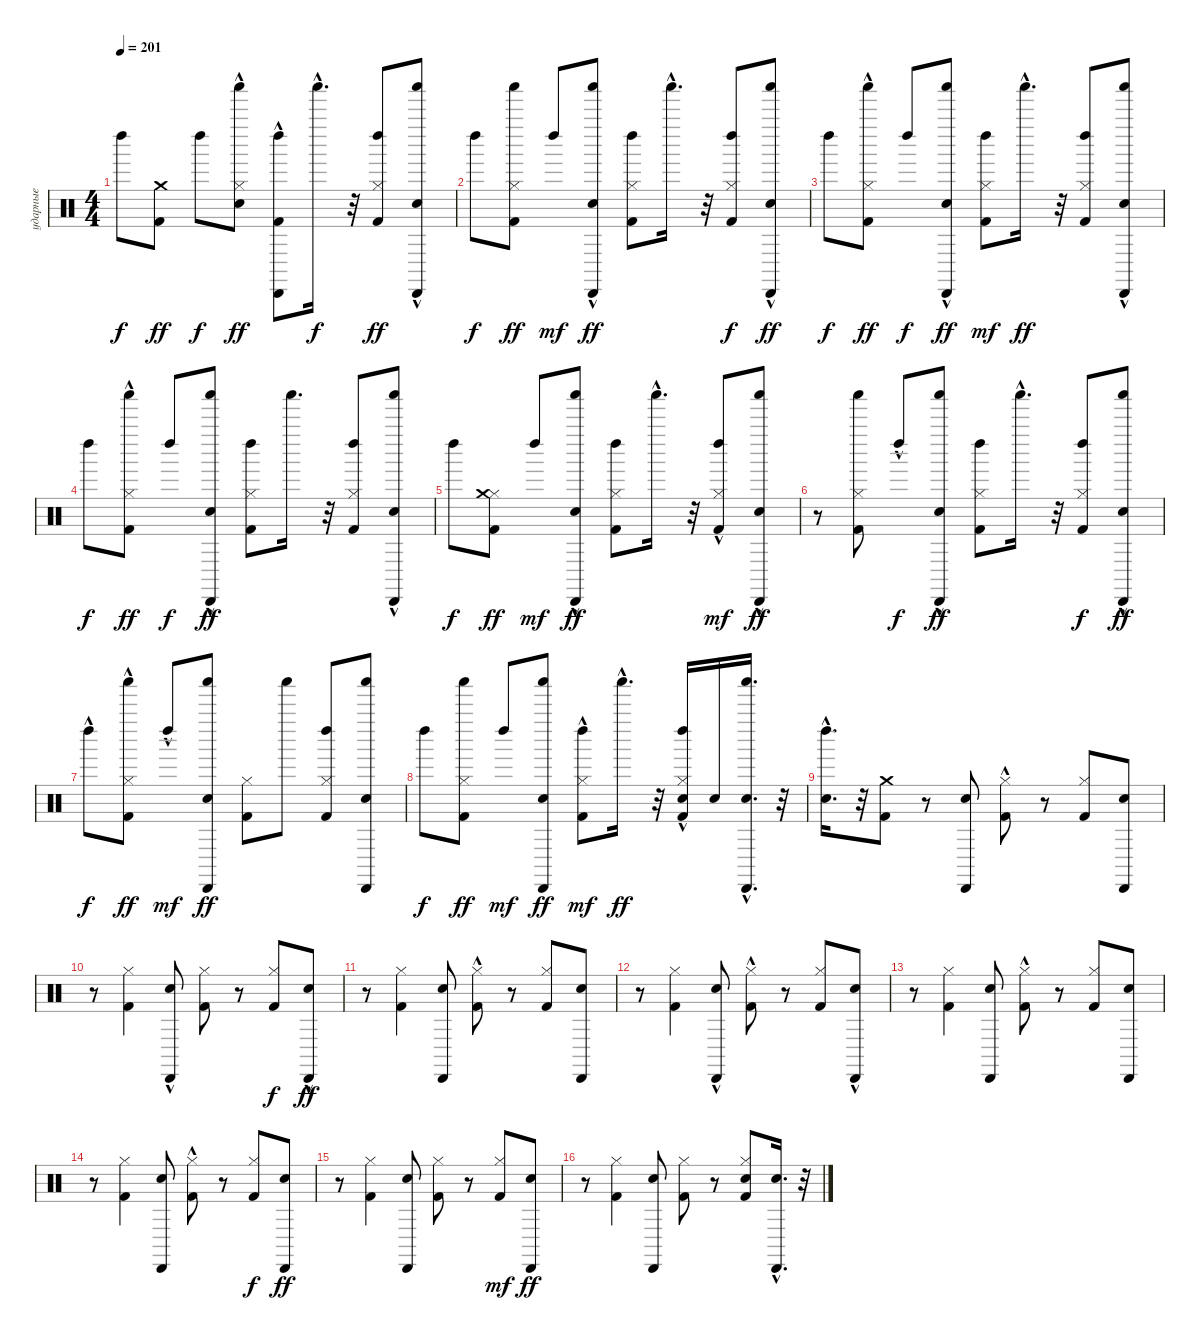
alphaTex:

\track ("ударные" "ударные") {instrument percussion}
\staff {score}
\articulation defaults
\ts (4 4)
\tempo 201
\clef neutral
\ks c "Left Maraca (hit)".8{dy f}
("Kick (hit) 2" "Crash medium (hit)").8{dy ff} "Left Maraca (hit)".8{dy f} ("Electric Snare (hit)" "Hi-Hat (closed)" "Shaker (hit)"{hac}).8{dy ff} ("Kick (hit) 2" "Cabasa (hit)"{hac} "Left Maraca (hit)").8 "Shaker (hit)"{hac}.16{d dy f} r.32 ("Kick (hit) 2" "Hi-Hat (closed)" "Left Maraca (hit)").8{dy ff} ("Electric Snare (hit)" "Cabasa (hit)"{hac} "Shaker (hit)"{hac}).8 |
"Left Maraca (hit)".8{dy f} ("Kick (hit) 2" "Hi-Hat (closed)" "Shaker (hit)").8{dy ff} "Left Maraca (hit)".8{dy mf} ("Electric Snare (hit)" "Cabasa (hit)"{hac} "Shaker (hit)"{hac}).8{dy ff} ("Kick (hit) 2" "Hi-Hat (closed)" "Left Maraca (hit)").8 "Shaker (hit)"{hac}.16{d} r.32 ("Kick (hit) 2" "Hi-Hat (closed)" "Left Maraca (hit)").8{dy f} ("Electric Snare (hit)" "Cabasa (hit)"{hac} "Shaker (hit)"{hac}).8{dy ff} |
"Left Maraca (hit)".8{dy f} ("Kick (hit) 2" "Hi-Hat (closed)" "Shaker (hit)"{hac}).8{dy ff} "Left Maraca (hit)".8{dy f} ("Electric Snare (hit)" "Cabasa (hit)"{hac} "Shaker (hit)"{hac}).8{dy ff} ("Kick (hit) 2" "Hi-Hat (closed)" "Left Maraca (hit)").8{dy mf} "Shaker (hit)"{hac}.16{d dy ff} r.32 ("Kick (hit) 2" "Hi-Hat (closed)" "Left Maraca (hit)").8 ("Electric Snare (hit)" "Cabasa (hit)" "Shaker (hit)"{hac}).8 |
"Left Maraca (hit)".8{dy f} ("Kick (hit) 2" "Hi-Hat (closed)" "Shaker (hit)"{hac}).8{dy ff} "Left Maraca (hit)".8{dy f} ("Electric Snare (hit)" "Cabasa (hit)" "Shaker (hit)"{hac}).8{dy ff} ("Kick (hit) 2" "Hi-Hat (closed)" "Left Maraca (hit)").8 "Shaker (hit)".16{d} r.32 ("Kick (hit) 2" "Hi-Hat (closed)" "Left Maraca (hit)").8 ("Electric Snare (hit)" "Cabasa (hit)" "Shaker (hit)"{hac}).8 |
"Left Maraca (hit)".8{dy f} ("Kick (hit) 2" "Hi-Hat (closed)" "Crash medium (hit)").8{dy ff} "Left Maraca (hit)".8{dy mf} ("Electric Snare (hit)" "Cabasa (hit)" "Shaker (hit)"{hac}).8{dy ff} ("Kick (hit) 2" "Hi-Hat (closed)" "Left Maraca (hit)").8 "Shaker (hit)"{hac}.16{d} r.32 ("Kick (hit) 2" "Hi-Hat (closed)" "Left Maraca (hit)"{hac}).8{dy mf} ("Electric Snare (hit)" "Cabasa (hit)"{hac} "Shaker (hit)").8{dy ff} |
r.8 ("Kick (hit) 2" "Hi-Hat (closed)" "Shaker (hit)").8 "Left Maraca (hit)"{hac}.8{dy f} ("Electric Snare (hit)" "Cabasa (hit)" "Shaker (hit)"{hac}).8{dy ff} ("Kick (hit) 2" "Hi-Hat (closed)" "Left Maraca (hit)").8 "Shaker (hit)"{hac}.16{d} r.32 ("Kick (hit) 2" "Hi-Hat (closed)" "Left Maraca (hit)").8{dy f} ("Electric Snare (hit)" "Cabasa (hit)" "Shaker (hit)"{hac}).8{dy ff} |
"Left Maraca (hit)"{hac}.8{dy f} ("Kick (hit) 2" "Hi-Hat (closed)"{hac} "Shaker (hit)"{hac}).8{dy ff} "Left Maraca (hit)"{hac}.8{dy mf} ("Electric Snare (hit)" "Cabasa (hit)" "Shaker (hit)").8{dy ff} ("Kick (hit) 2" "Hi-Hat (closed)").8 "Shaker (hit)".8 ("Kick (hit) 2" "Hi-Hat (closed)" "Left Maraca (hit)").8 ("Electric Snare (hit)" "Cabasa (hit)" "Shaker (hit)").8 |
"Left Maraca (hit)".8{dy f} ("Kick (hit) 2" "Hi-Hat (closed)" "Shaker (hit)").8{dy ff} "Left Maraca (hit)".8{dy mf} ("Electric Snare (hit)" "Cabasa (hit)" "Shaker (hit)").8{dy ff} ("Kick (hit) 2" "Hi-Hat (closed)"{hac} "Left Maraca (hit)").8{dy mf} "Shaker (hit)"{hac}.16{d dy ff} r.32 ("Kick (hit) 2" "Electric Snare (hit)" "Hi-Hat (closed)"{hac} "Left Maraca (hit)").16 "Electric Snare (hit)".16 ("Electric Snare (hit)" "Cabasa (hit)" "Shaker (hit)"{hac}).16{d} r.32 |
("Electric Snare (hit)" "Left Maraca (hit)"{hac}).16{d} r.32 ("Kick (hit) 2" "Crash medium (hit)").8 r.8 ("Electric Snare (hit)" "Cabasa (hit)").8 ("Kick (hit) 2" "Hi-Hat (closed)"{hac}).8 r.8 ("Kick (hit) 2" "Hi-Hat (closed)").8 ("Electric Snare (hit)" "Cabasa (hit)").8 |
r.8 ("Kick (hit) 2" "Hi-Hat (closed)").4 ("Electric Snare (hit)" "Cabasa (hit)"{hac}).8 ("Kick (hit) 2" "Hi-Hat (closed)").8 r.8 ("Kick (hit) 2" "Hi-Hat (closed)").8{dy f} ("Electric Snare (hit)" "Cabasa (hit)"{hac}).8{dy ff} |
r.8 ("Kick (hit) 2" "Hi-Hat (closed)").4 ("Electric Snare (hit)" "Cabasa (hit)").8 ("Kick (hit) 2" "Hi-Hat (closed)"{hac}).8 r.8 ("Kick (hit) 2" "Hi-Hat (closed)").8 ("Electric Snare (hit)" "Cabasa (hit)").8 |
r.8 ("Kick (hit) 2" "Hi-Hat (closed)").4 ("Electric Snare (hit)" "Cabasa (hit)"{hac}).8 ("Kick (hit) 2" "Hi-Hat (closed)"{hac}).8 r.8 ("Kick (hit) 2" "Hi-Hat (closed)").8 ("Electric Snare (hit)" "Cabasa (hit)"{hac}).8 |
r.8 ("Kick (hit) 2" "Hi-Hat (closed)").4 ("Electric Snare (hit)" "Cabasa (hit)").8 ("Kick (hit) 2" "Hi-Hat (closed)"{hac}).8 r.8 ("Kick (hit) 2" "Hi-Hat (closed)").8 ("Electric Snare (hit)" "Cabasa (hit)").8 |
r.8 ("Kick (hit) 2" "Hi-Hat (closed)").4 ("Electric Snare (hit)" "Cabasa (hit)").8 ("Kick (hit) 2" "Hi-Hat (closed)"{hac}).8 r.8 ("Kick (hit) 2" "Hi-Hat (closed)").8{dy f} ("Electric Snare (hit)" "Cabasa (hit)").8{dy ff} |
r.8 ("Kick (hit) 2" "Hi-Hat (closed)").4 ("Electric Snare (hit)" "Cabasa (hit)").8 ("Kick (hit) 2" "Hi-Hat (closed)").8 r.8 ("Kick (hit) 2" "Hi-Hat (closed)").8{dy mf} ("Electric Snare (hit)" "Cabasa (hit)").8{dy ff} |
r.8 ("Kick (hit) 2" "Hi-Hat (closed)").4 ("Electric Snare (hit)" "Cabasa (hit)").8 ("Kick (hit) 2" "Hi-Hat (closed)").8 r.8 ("Kick (hit) 2" "Electric Snare (hit)" "Hi-Hat (closed)").8 ("Electric Snare (hit)" "Cabasa (hit)"{hac}).16{d} r.32
